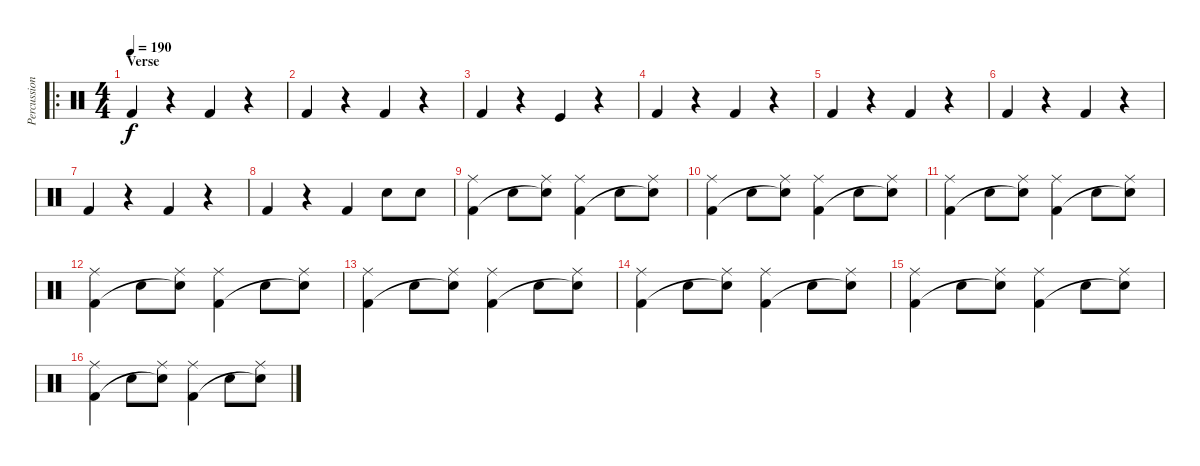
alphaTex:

\track ("Percussion" "Percussion") {instrument percussion}
\staff {score}
\articulation defaults
\ro
\ts (4 4)
\section ("" "Verse ")
\tempo 190
\clef neutral
\ks c "Kick (hit) 2".4{dy f}
r.4 "Kick (hit) 2".4 r.4 |
"Kick (hit) 2".4 r.4 "Kick (hit) 2".4 r.4 |
"Kick (hit) 2".4 r.4 "Kick (hit)".4 r.4 |
"Kick (hit) 2".4 r.4 "Kick (hit) 2".4 r.4 |
"Kick (hit) 2".4 r.4 "Kick (hit) 2".4 r.4 |
"Kick (hit) 2".4 r.4 "Kick (hit) 2".4 r.4 |
"Kick (hit) 2".4 r.4 "Kick (hit) 2".4 r.4 |
"Kick (hit) 2".4 r.4 "Kick (hit) 2".4 "Electric Snare (hit)".8 "Electric Snare (hit)".8 |
("Ride (middle)" "Kick (hit) 2").4 "Electric Snare (hit)".8 ("Ride (middle)" "Electric Snare (hit)"{t}).8 ("Ride (middle)" "Kick (hit) 2").4 "Electric Snare (hit)".8 ("Ride (middle)" "Electric Snare (hit)"{t}).8 |
("Ride (middle)" "Kick (hit) 2").4 "Electric Snare (hit)".8 ("Ride (middle)" "Electric Snare (hit)"{t}).8 ("Ride (middle)" "Kick (hit) 2").4 "Electric Snare (hit)".8 ("Ride (middle)" "Electric Snare (hit)"{t}).8 |
("Ride (middle)" "Kick (hit) 2").4 "Electric Snare (hit)".8 ("Ride (middle)" "Electric Snare (hit)"{t}).8 ("Ride (middle)" "Kick (hit) 2").4 "Electric Snare (hit)".8 ("Ride (middle)" "Electric Snare (hit)"{t}).8 |
("Ride (middle)" "Kick (hit) 2").4 "Electric Snare (hit)".8 ("Ride (middle)" "Electric Snare (hit)"{t}).8 ("Ride (middle)" "Kick (hit) 2").4 "Electric Snare (hit)".8 ("Ride (middle)" "Electric Snare (hit)"{t}).8 |
("Ride (middle)" "Kick (hit) 2").4 "Electric Snare (hit)".8 ("Ride (middle)" "Electric Snare (hit)"{t}).8 ("Ride (middle)" "Kick (hit) 2").4 "Electric Snare (hit)".8 ("Ride (middle)" "Electric Snare (hit)"{t}).8 |
("Ride (middle)" "Kick (hit) 2").4 "Electric Snare (hit)".8 ("Ride (middle)" "Electric Snare (hit)"{t}).8 ("Ride (middle)" "Kick (hit) 2").4 "Electric Snare (hit)".8 ("Ride (middle)" "Electric Snare (hit)"{t}).8 |
("Ride (middle)" "Kick (hit) 2").4 "Electric Snare (hit)".8 ("Ride (middle)" "Electric Snare (hit)"{t}).8 ("Ride (middle)" "Kick (hit) 2").4 "Electric Snare (hit)".8 ("Ride (middle)" "Electric Snare (hit)"{t}).8 |
("Ride (middle)" "Kick (hit) 2").4 "Electric Snare (hit)".8 ("Ride (middle)" "Electric Snare (hit)"{t}).8 ("Ride (middle)" "Kick (hit) 2").4 "Electric Snare (hit)".8 ("Ride (middle)" "Electric Snare (hit)"{t}).8
